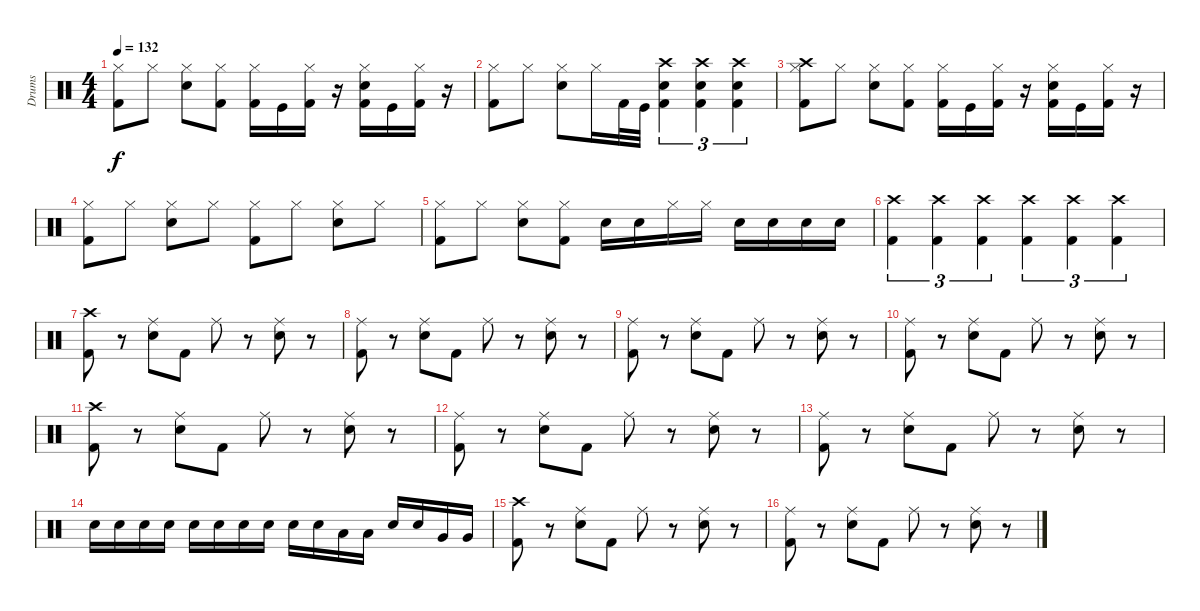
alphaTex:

\track ("Drums" "Drums") {instrument percussion}
\staff {score}
\articulation defaults
\ts (4 4)
\tempo 132
\clef neutral
\ks c
("Hi-Hat (closed)" "Kick (hit) 2").8{dy f} "Hi-Hat (closed)".8 ("Hi-Hat (closed)" "Snare (hit) 2").8 ("Hi-Hat (closed)" "Kick (hit) 2").8 ("Hi-Hat (closed)" "Kick (hit) 2").16 "Kick (hit)".16 ("Hi-Hat (closed)" "Kick (hit) 2").16 r.16 ("Hi-Hat (closed)" "Snare (hit) 2" "Kick (hit) 2").16 "Kick (hit)".16 ("Hi-Hat (closed)" "Kick (hit) 2").16 r.16 |
("Hi-Hat (closed)" "Kick (hit) 2").8 "Hi-Hat (closed)".8 ("Hi-Hat (closed)" "Snare (hit) 2").8 "Hi-Hat (closed)".16 "Kick (hit) 2".32 "Kick (hit)".32 ("Crash high (hit)" "Kick (hit) 2" "Snare (hit) 2").4{tu (3 2)} ("Crash high (hit)" "Kick (hit) 2" "Snare (hit) 2").4{tu (3 2)} ("Crash high (hit)" "Kick (hit) 2" "Snare (hit) 2").4{tu (3 2)} |
("Crash high (hit)" "Hi-Hat (closed)" "Kick (hit) 2").8 "Hi-Hat (closed)".8 ("Hi-Hat (closed)" "Snare (hit) 2").8 ("Hi-Hat (closed)" "Kick (hit) 2").8 ("Hi-Hat (closed)" "Kick (hit) 2").16 "Kick (hit)".16 ("Hi-Hat (closed)" "Kick (hit) 2").16 r.16 ("Hi-Hat (closed)" "Snare (hit) 2" "Kick (hit) 2").16 "Kick (hit)".16 ("Hi-Hat (closed)" "Kick (hit) 2").16 r.16 |
("Hi-Hat (closed)" "Kick (hit) 2").8 "Hi-Hat (closed)".8 ("Hi-Hat (closed)" "Snare (hit) 2").8 "Hi-Hat (closed)".8 ("Hi-Hat (closed)" "Kick (hit) 2").8 "Hi-Hat (closed)".8 ("Hi-Hat (closed)" "Snare (hit) 2").8 "Hi-Hat (closed)".8 |
("Hi-Hat (closed)" "Kick (hit) 2").8 "Hi-Hat (closed)".8 ("Hi-Hat (closed)" "Snare (hit) 2").8 ("Hi-Hat (closed)" "Kick (hit) 2").8 "Snare (hit) 2".16 "Snare (hit) 2".16 "Hi-Hat (closed)".16 "Hi-Hat (closed)".16 "Snare (hit) 2".16 "Snare (hit) 2".16 "Snare (hit) 2".16 "Snare (hit) 2".16 |
("Crash high (hit)" "Kick (hit) 2").4{tu (3 2)} ("Crash high (hit)" "Kick (hit) 2").4{tu (3 2)} ("Crash high (hit)" "Kick (hit) 2").4{tu (3 2)} ("Crash high (hit)" "Kick (hit) 2").4{tu (3 2)} ("Crash high (hit)" "Kick (hit) 2").4{tu (3 2)} ("Crash high (hit)" "Kick (hit) 2").4{tu (3 2)} |
("Crash high (hit)" "Kick (hit) 2").8 r.8 ("Ride (middle)" "Snare (hit) 2").8 "Kick (hit) 2".8 "Ride (middle)".8 r.8 ("Snare (hit) 2" "Ride (middle)").8 r.8 |
("Ride (middle)" "Kick (hit) 2").8 r.8 ("Ride (middle)" "Snare (hit) 2").8 "Kick (hit) 2".8 "Ride (middle)".8 r.8 ("Snare (hit) 2" "Ride (middle)").8 r.8 |
("Ride (middle)" "Kick (hit) 2").8 r.8 ("Ride (middle)" "Snare (hit) 2").8 "Kick (hit) 2".8 "Ride (middle)".8 r.8 ("Snare (hit) 2" "Ride (middle)").8 r.8 |
("Ride (middle)" "Kick (hit) 2").8 r.8 ("Ride (middle)" "Snare (hit) 2").8 "Kick (hit) 2".8 "Ride (middle)".8 r.8 ("Snare (hit) 2" "Ride (middle)").8 r.8 |
("Crash high (hit)" "Kick (hit) 2").8 r.8 ("Ride (middle)" "Snare (hit) 2").8 "Kick (hit) 2".8 "Ride (middle)".8 r.8 ("Snare (hit) 2" "Ride (middle)").8 r.8 |
("Ride (middle)" "Kick (hit) 2").8 r.8 ("Ride (middle)" "Snare (hit) 2").8 "Kick (hit) 2".8 "Ride (middle)".8 r.8 ("Snare (hit) 2" "Ride (middle)").8 r.8 |
("Ride (middle)" "Kick (hit) 2").8 r.8 ("Ride (middle)" "Snare (hit) 2").8 "Kick (hit) 2".8 "Ride (middle)".8 r.8 ("Snare (hit) 2" "Ride (middle)").8 r.8 |
"Snare (hit) 2".16 "Snare (hit) 2".16 "Snare (hit) 2".16 "Snare (hit) 2".16 "Snare (hit) 2".16 "Snare (hit) 2".16 "Snare (hit) 2".16 "Snare (hit) 2".16 "Snare (hit) 2".16 "Snare (hit) 2".16 "Low Tom (hit)".16 "Low Tom (hit)".16 "Snare (hit) 2".16 "Snare (hit) 2".16 "Very Low Tom (hit)".16 "Very Low Tom (hit)".16 |
("Crash high (hit)" "Kick (hit) 2").8 r.8 ("Ride (middle)" "Snare (hit) 2").8 "Kick (hit) 2".8 "Ride (middle)".8 r.8 ("Snare (hit) 2" "Ride (middle)").8 r.8 |
("Ride (middle)" "Kick (hit) 2").8 r.8 ("Ride (middle)" "Snare (hit) 2").8 "Kick (hit) 2".8 "Ride (middle)".8 r.8 ("Snare (hit) 2" "Ride (middle)").8 r.8
